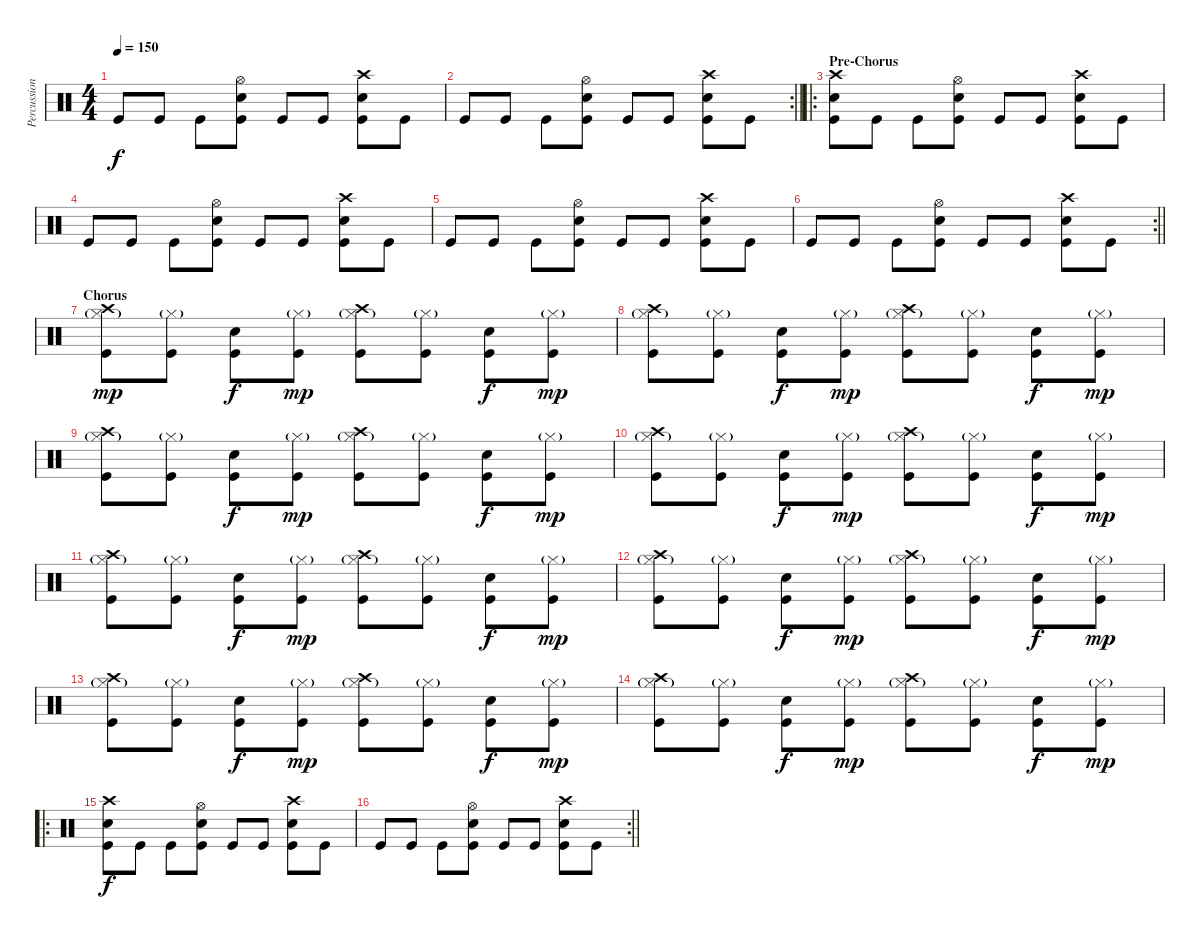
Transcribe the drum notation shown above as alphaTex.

\track ("Percussion" "Percussion") {instrument percussion}
\staff {score}
\articulation defaults
\ts (4 4)
\tempo 150
\clef neutral
\ks c "Kick (hit)".8{dy f} "Kick (hit)".8 "Kick (hit)".8
("Kick (hit)" "Snare (hit) 2" "Hi-Hat (open)").8 "Kick (hit)".8 "Kick (hit)".8 ("Kick (hit)" "Snare (hit) 2" "Crash high (hit)").8 "Kick (hit)".8 |
\rc 2
\barLineRight lightlight "Kick (hit)".8 "Kick (hit)".8 "Kick (hit)".8
("Kick (hit)" "Snare (hit) 2" "Hi-Hat (open)").8 "Kick (hit)".8 "Kick (hit)".8 ("Kick (hit)" "Snare (hit) 2" "Crash high (hit)").8 "Kick (hit)".8 |
\ro
\section ("" "Pre-Chorus")
("Kick (hit)" "Crash high (hit)" "Snare (hit) 2").8 "Kick (hit)".8 "Kick (hit)".8 ("Kick (hit)" "Snare (hit) 2" "Hi-Hat (open)").8 "Kick (hit)".8 "Kick (hit)".8 ("Snare (hit) 2" "Kick (hit)" "Crash high (hit)").8 "Kick (hit)".8 |
"Kick (hit)".8 "Kick (hit)".8 "Kick (hit)".8 ("Kick (hit)" "Snare (hit) 2" "Hi-Hat (open)").8 "Kick (hit)".8 "Kick (hit)".8 ("Kick (hit)" "Snare (hit) 2" "Crash high (hit)").8 "Kick (hit)".8 |
"Kick (hit)".8 "Kick (hit)".8 "Kick (hit)".8 ("Kick (hit)" "Snare (hit) 2" "Hi-Hat (open)").8 "Kick (hit)".8 "Kick (hit)".8 ("Kick (hit)" "Snare (hit) 2" "Crash high (hit)").8 "Kick (hit)".8 |
\rc 2
\barLineRight lightlight "Kick (hit)".8 "Kick (hit)".8 "Kick (hit)".8
("Kick (hit)" "Snare (hit) 2" "Hi-Hat (open)").8 "Kick (hit)".8 "Kick (hit)".8 ("Kick (hit)" "Snare (hit) 2" "Crash high (hit)").8 "Kick (hit)".8 |
\section ("" "Chorus")
("Kick (hit)" "Hi-Hat (closed)"{g} "Crash high (hit)").8{dy mp} ("Kick (hit)" "Hi-Hat (closed)"{g}).8 ("Kick (hit)" "Snare (hit) 2").8{dy f} ("Kick (hit)" "Hi-Hat (closed)"{g}).8{dy mp} ("Kick (hit)" "Hi-Hat (closed)"{g} "Crash high (hit)").8 ("Kick (hit)" "Hi-Hat (closed)"{g}).8 ("Kick (hit)" "Snare (hit) 2").8{dy f} ("Kick (hit)" "Hi-Hat (closed)"{g}).8{dy mp} |
("Kick (hit)" "Hi-Hat (closed)"{g} "Crash high (hit)").8 ("Kick (hit)" "Hi-Hat (closed)"{g}).8 ("Kick (hit)" "Snare (hit) 2").8{dy f} ("Kick (hit)" "Hi-Hat (closed)"{g}).8{dy mp} ("Kick (hit)" "Hi-Hat (closed)"{g} "Crash high (hit)").8 ("Kick (hit)" "Hi-Hat (closed)"{g}).8 ("Kick (hit)" "Snare (hit) 2").8{dy f} ("Kick (hit)" "Hi-Hat (closed)"{g}).8{dy mp} |
("Kick (hit)" "Hi-Hat (closed)"{g} "Crash high (hit)").8 ("Kick (hit)" "Hi-Hat (closed)"{g}).8 ("Kick (hit)" "Snare (hit) 2").8{dy f} ("Kick (hit)" "Hi-Hat (closed)"{g}).8{dy mp} ("Kick (hit)" "Hi-Hat (closed)"{g} "Crash high (hit)").8 ("Kick (hit)" "Hi-Hat (closed)"{g}).8 ("Kick (hit)" "Snare (hit) 2").8{dy f} ("Kick (hit)" "Hi-Hat (closed)"{g}).8{dy mp} |
("Kick (hit)" "Hi-Hat (closed)"{g} "Crash high (hit)").8 ("Kick (hit)" "Hi-Hat (closed)"{g}).8 ("Kick (hit)" "Snare (hit) 2").8{dy f} ("Kick (hit)" "Hi-Hat (closed)"{g}).8{dy mp} ("Kick (hit)" "Hi-Hat (closed)"{g} "Crash high (hit)").8 ("Kick (hit)" "Hi-Hat (closed)"{g}).8 ("Kick (hit)" "Snare (hit) 2").8{dy f} ("Kick (hit)" "Hi-Hat (closed)"{g}).8{dy mp} |
("Kick (hit)" "Hi-Hat (closed)"{g} "Crash high (hit)").8 ("Kick (hit)" "Hi-Hat (closed)"{g}).8 ("Kick (hit)" "Snare (hit) 2").8{dy f} ("Kick (hit)" "Hi-Hat (closed)"{g}).8{dy mp} ("Kick (hit)" "Hi-Hat (closed)"{g} "Crash high (hit)").8 ("Kick (hit)" "Hi-Hat (closed)"{g}).8 ("Kick (hit)" "Snare (hit) 2").8{dy f} ("Kick (hit)" "Hi-Hat (closed)"{g}).8{dy mp} |
("Kick (hit)" "Hi-Hat (closed)"{g} "Crash high (hit)").8 ("Kick (hit)" "Hi-Hat (closed)"{g}).8 ("Kick (hit)" "Snare (hit) 2").8{dy f} ("Kick (hit)" "Hi-Hat (closed)"{g}).8{dy mp} ("Kick (hit)" "Hi-Hat (closed)"{g} "Crash high (hit)").8 ("Kick (hit)" "Hi-Hat (closed)"{g}).8 ("Kick (hit)" "Snare (hit) 2").8{dy f} ("Kick (hit)" "Hi-Hat (closed)"{g}).8{dy mp} |
("Kick (hit)" "Hi-Hat (closed)"{g} "Crash high (hit)").8 ("Kick (hit)" "Hi-Hat (closed)"{g}).8 ("Kick (hit)" "Snare (hit) 2").8{dy f} ("Kick (hit)" "Hi-Hat (closed)"{g}).8{dy mp} ("Kick (hit)" "Hi-Hat (closed)"{g} "Crash high (hit)").8 ("Kick (hit)" "Hi-Hat (closed)"{g}).8 ("Kick (hit)" "Snare (hit) 2").8{dy f} ("Kick (hit)" "Hi-Hat (closed)"{g}).8{dy mp} |
("Kick (hit)" "Hi-Hat (closed)"{g} "Crash high (hit)").8 ("Kick (hit)" "Hi-Hat (closed)"{g}).8 ("Kick (hit)" "Snare (hit) 2").8{dy f} ("Kick (hit)" "Hi-Hat (closed)"{g}).8{dy mp} ("Kick (hit)" "Hi-Hat (closed)"{g} "Crash high (hit)").8 ("Kick (hit)" "Hi-Hat (closed)"{g}).8 ("Kick (hit)" "Snare (hit) 2").8{dy f} ("Kick (hit)" "Hi-Hat (closed)"{g}).8{dy mp} |
\ro
("Kick (hit)" "Crash high (hit)" "Snare (hit) 2").8{dy f} "Kick (hit)".8 "Kick (hit)".8 ("Kick (hit)" "Snare (hit) 2" "Hi-Hat (open)").8 "Kick (hit)".8 "Kick (hit)".8 ("Snare (hit) 2" "Kick (hit)" "Crash high (hit)").8 "Kick (hit)".8 |
\rc 2
\barLineRight lightlight "Kick (hit)".8 "Kick (hit)".8 "Kick (hit)".8
("Kick (hit)" "Snare (hit) 2" "Hi-Hat (open)").8 "Kick (hit)".8 "Kick (hit)".8 ("Kick (hit)" "Snare (hit) 2" "Crash high (hit)").8 "Kick (hit)".8
